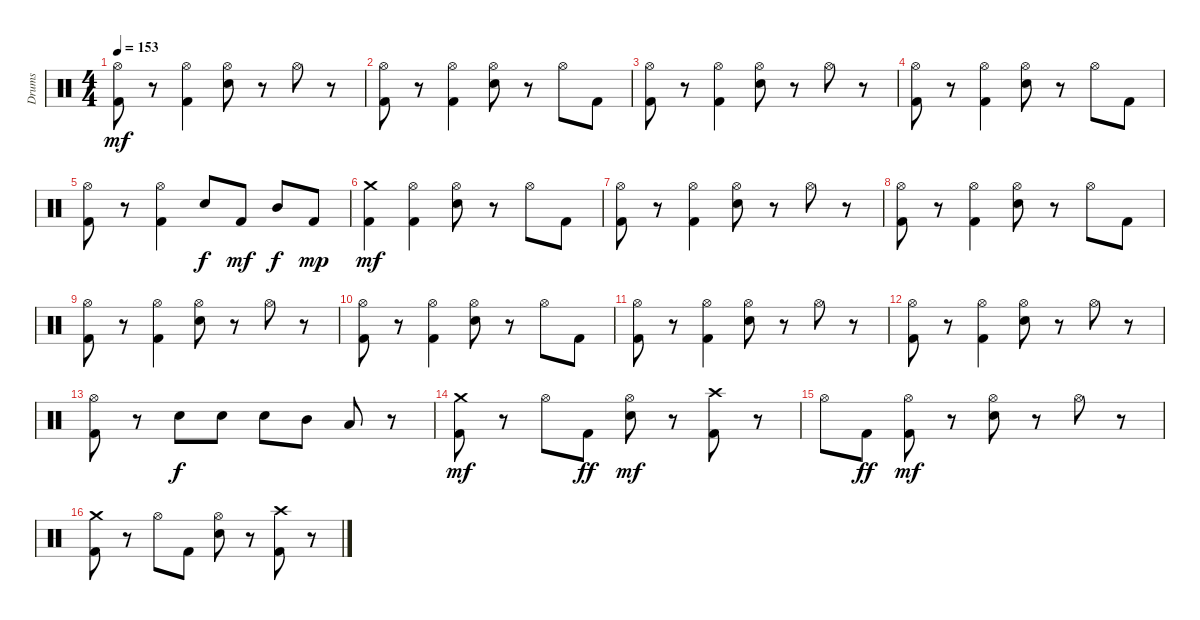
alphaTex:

\track ("Drums" "Drums") {instrument percussion}
\staff {score}
\articulation defaults
\ts (4 4)
\tempo 153
\clef neutral
\ks c
("Kick (hit) 2" "Hi-Hat (open)").8{dy mf} r.8 ("Kick (hit) 2" "Hi-Hat (open)").4 ("Electric Snare (hit)" "Hi-Hat (open)").8 r.8 "Hi-Hat (open)".8 r.8 |
("Kick (hit) 2" "Hi-Hat (open)").8 r.8 ("Kick (hit) 2" "Hi-Hat (open)").4 ("Electric Snare (hit)" "Hi-Hat (open)").8 r.8 "Hi-Hat (open)".8 "Kick (hit) 2".8 |
("Kick (hit) 2" "Hi-Hat (open)").8 r.8 ("Kick (hit) 2" "Hi-Hat (open)").4 ("Electric Snare (hit)" "Hi-Hat (open)").8 r.8 "Hi-Hat (open)".8 r.8 |
("Kick (hit) 2" "Hi-Hat (open)").8 r.8 ("Kick (hit) 2" "Hi-Hat (open)").4 ("Electric Snare (hit)" "Hi-Hat (open)").8 r.8 "Hi-Hat (open)".8 "Kick (hit) 2".8 |
("Kick (hit) 2" "Hi-Hat (open)").8 r.8 ("Kick (hit) 2" "Hi-Hat (open)").4 "Electric Snare (hit)".8{dy f} "Kick (hit) 2".8{dy mf} "Mid Tom (hit)".8{dy f} "Kick (hit) 2".8{dy mp} |
("Kick (hit) 2" "Crash medium (hit)").4{dy mf} ("Kick (hit) 2" "Hi-Hat (open)").4 ("Electric Snare (hit)" "Hi-Hat (open)").8 r.8 "Hi-Hat (open)".8 "Kick (hit) 2".8 |
("Kick (hit) 2" "Hi-Hat (open)").8 r.8 ("Kick (hit) 2" "Hi-Hat (open)").4 ("Electric Snare (hit)" "Hi-Hat (open)").8 r.8 "Hi-Hat (open)".8 r.8 |
("Kick (hit) 2" "Hi-Hat (open)").8 r.8 ("Kick (hit) 2" "Hi-Hat (open)").4 ("Electric Snare (hit)" "Hi-Hat (open)").8 r.8 "Hi-Hat (open)".8 "Kick (hit) 2".8 |
("Kick (hit) 2" "Hi-Hat (open)").8 r.8 ("Kick (hit) 2" "Hi-Hat (open)").4 ("Electric Snare (hit)" "Hi-Hat (open)").8 r.8 "Hi-Hat (open)".8 r.8 |
("Kick (hit) 2" "Hi-Hat (open)").8 r.8 ("Kick (hit) 2" "Hi-Hat (open)").4 ("Electric Snare (hit)" "Hi-Hat (open)").8 r.8 "Hi-Hat (open)".8 "Kick (hit) 2".8 |
("Kick (hit) 2" "Hi-Hat (open)").8 r.8 ("Kick (hit) 2" "Hi-Hat (open)").4 ("Electric Snare (hit)" "Hi-Hat (open)").8 r.8 "Hi-Hat (open)".8 r.8 |
("Kick (hit) 2" "Hi-Hat (open)").8 r.8 ("Kick (hit) 2" "Hi-Hat (open)").4 ("Electric Snare (hit)" "Hi-Hat (open)").8 r.8 "Hi-Hat (open)".8 r.8 |
("Kick (hit) 2" "Hi-Hat (open)").8 r.8 "Electric Snare (hit)".8{dy f} "Electric Snare (hit)".8 "Electric Snare (hit)".8 "Mid Tom (hit)".8 "Low Tom (hit)".8 r.8 |
("Kick (hit) 2" "Crash medium (hit)").8{dy mf} r.8 "Hi-Hat (open)".8 "Kick (hit) 2".8{dy ff} ("Electric Snare (hit)" "Hi-Hat (open)").8{dy mf} r.8 ("Kick (hit) 2" "Crash high (hit)").8 r.8 |
"Hi-Hat (open)".8 "Kick (hit) 2".8{dy ff} ("Kick (hit) 2" "Hi-Hat (open)").8{dy mf} r.8 ("Electric Snare (hit)" "Hi-Hat (open)").8 r.8 "Hi-Hat (open)".8 r.8 |
("Kick (hit) 2" "Crash medium (hit)").8 r.8 "Hi-Hat (open)".8 "Kick (hit) 2".8 ("Electric Snare (hit)" "Hi-Hat (open)").8 r.8 ("Kick (hit) 2" "Crash high (hit)").8 r.8
